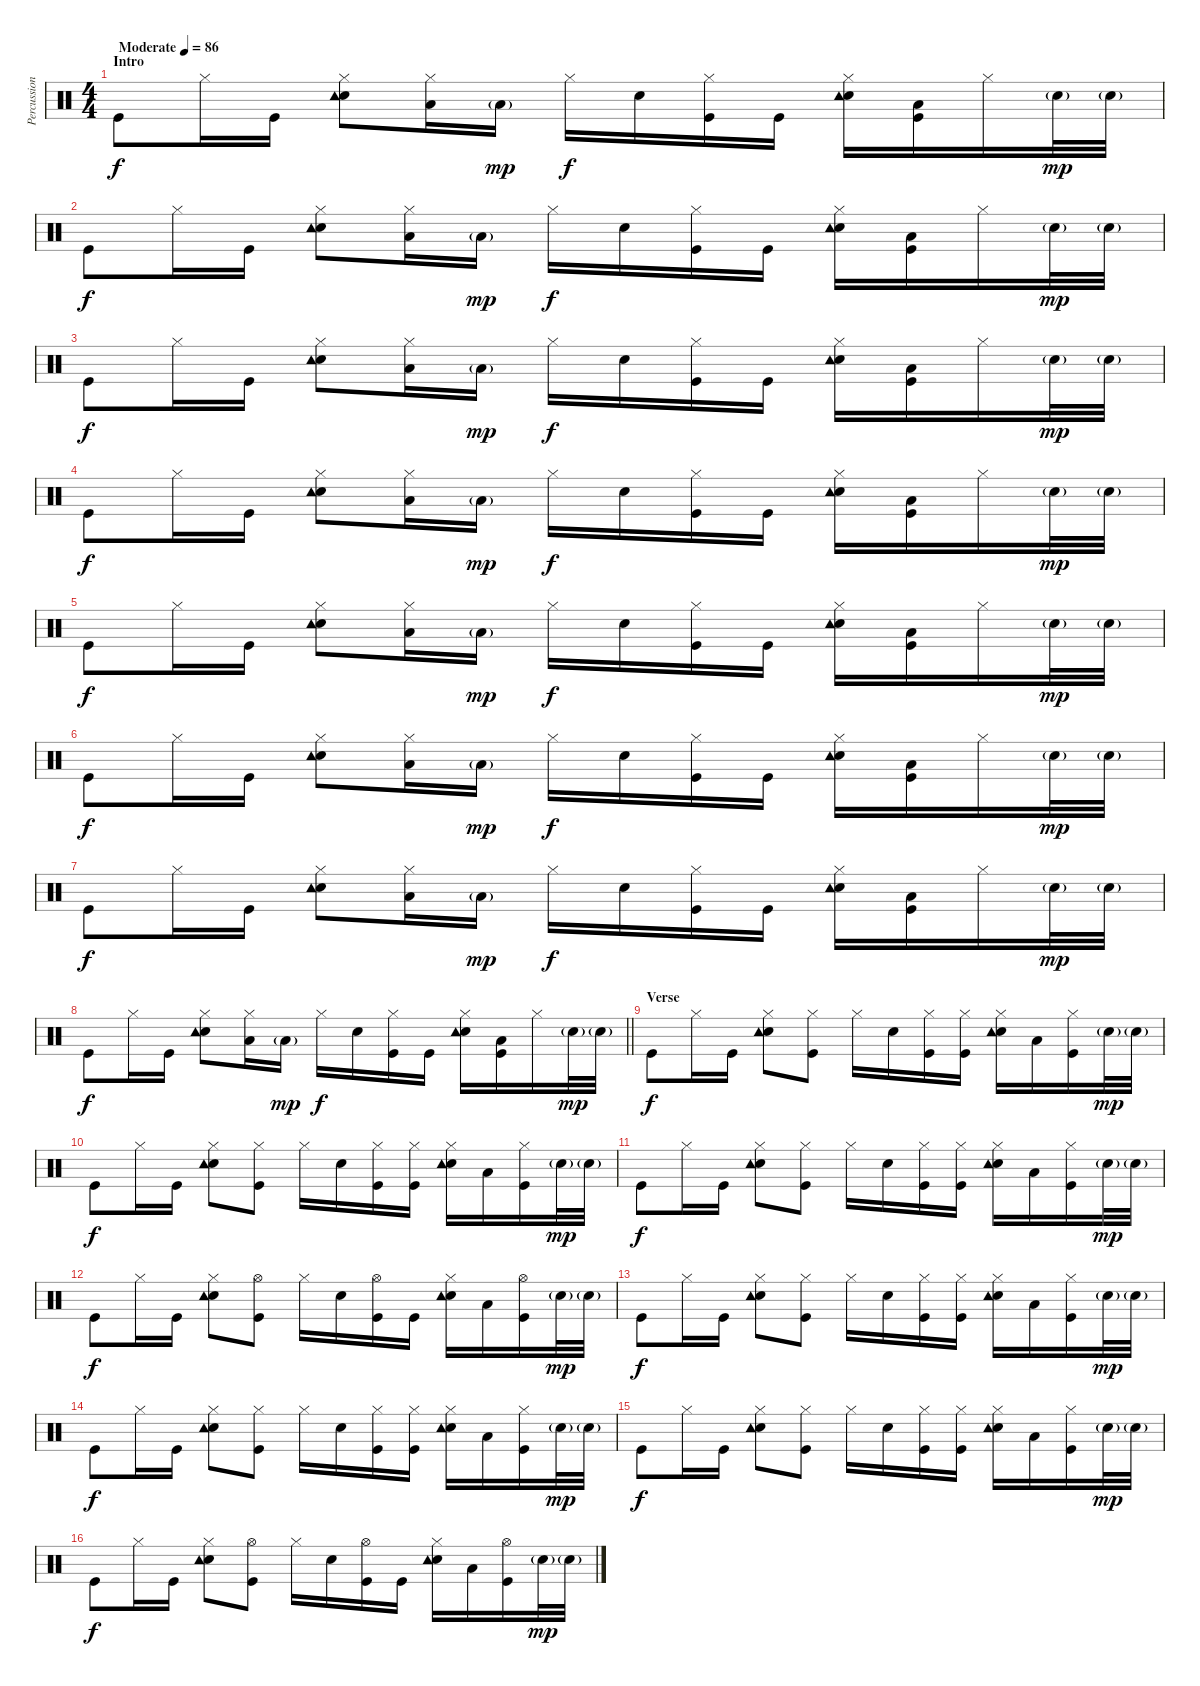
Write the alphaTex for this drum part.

\track ("Percussion" "Percussion") {instrument percussion}
\staff {score}
\articulation defaults
\ts (4 4)
\section ("" "Intro")
\tempo (86 "Moderate")
\clef neutral
\ks c "Kick (hit)".8{dy f} "Hi-Hat (closed)".16 "Kick (hit)".16
("Snare (hit) 2" "Hi-Hat (closed)" "Tambourine (hit)").8 ("Hi-Hat (closed)" "Low Tom (hit)").16 "Low Tom (hit)"{g}.16{dy mp} "Hi-Hat (closed)".16{dy f} "Snare (hit) 2".16 ("Kick (hit)" "Hi-Hat (closed)").16 "Kick (hit)".16 ("Snare (hit) 2" "Hi-Hat (closed)" "Tambourine (hit)").16 ("Kick (hit)" "Low Tom (hit)").16 "Hi-Hat (closed)".16 "Snare (hit) 2"{g}.32{dy mp} "Snare (hit) 2"{g}.32 |
"Kick (hit)".8{dy f} "Hi-Hat (closed)".16 "Kick (hit)".16 ("Snare (hit) 2" "Hi-Hat (closed)" "Tambourine (hit)").8 ("Hi-Hat (closed)" "Low Tom (hit)").16 "Low Tom (hit)"{g}.16{dy mp} "Hi-Hat (closed)".16{dy f} "Snare (hit) 2".16 ("Kick (hit)" "Hi-Hat (closed)").16 "Kick (hit)".16 ("Snare (hit) 2" "Hi-Hat (closed)" "Tambourine (hit)").16 ("Kick (hit)" "Low Tom (hit)").16 "Hi-Hat (closed)".16 "Snare (hit) 2"{g}.32{dy mp} "Snare (hit) 2"{g}.32 |
"Kick (hit)".8{dy f} "Hi-Hat (closed)".16 "Kick (hit)".16 ("Snare (hit) 2" "Hi-Hat (closed)" "Tambourine (hit)").8 ("Hi-Hat (closed)" "Low Tom (hit)").16 "Low Tom (hit)"{g}.16{dy mp} "Hi-Hat (closed)".16{dy f} "Snare (hit) 2".16 ("Kick (hit)" "Hi-Hat (closed)").16 "Kick (hit)".16 ("Snare (hit) 2" "Hi-Hat (closed)" "Tambourine (hit)").16 ("Kick (hit)" "Low Tom (hit)").16 "Hi-Hat (closed)".16 "Snare (hit) 2"{g}.32{dy mp} "Snare (hit) 2"{g}.32 |
"Kick (hit)".8{dy f} "Hi-Hat (closed)".16 "Kick (hit)".16 ("Snare (hit) 2" "Hi-Hat (closed)" "Tambourine (hit)").8 ("Hi-Hat (closed)" "Low Tom (hit)").16 "Low Tom (hit)"{g}.16{dy mp} "Hi-Hat (closed)".16{dy f} "Snare (hit) 2".16 ("Kick (hit)" "Hi-Hat (closed)").16 "Kick (hit)".16 ("Snare (hit) 2" "Hi-Hat (closed)" "Tambourine (hit)").16 ("Kick (hit)" "Low Tom (hit)").16 "Hi-Hat (closed)".16 "Snare (hit) 2"{g}.32{dy mp} "Snare (hit) 2"{g}.32 |
"Kick (hit)".8{dy f} "Hi-Hat (closed)".16 "Kick (hit)".16 ("Snare (hit) 2" "Hi-Hat (closed)" "Tambourine (hit)").8 ("Hi-Hat (closed)" "Low Tom (hit)").16 "Low Tom (hit)"{g}.16{dy mp} "Hi-Hat (closed)".16{dy f} "Snare (hit) 2".16 ("Kick (hit)" "Hi-Hat (closed)").16 "Kick (hit)".16 ("Snare (hit) 2" "Hi-Hat (closed)" "Tambourine (hit)").16 ("Kick (hit)" "Low Tom (hit)").16 "Hi-Hat (closed)".16 "Snare (hit) 2"{g}.32{dy mp} "Snare (hit) 2"{g}.32 |
"Kick (hit)".8{dy f} "Hi-Hat (closed)".16 "Kick (hit)".16 ("Snare (hit) 2" "Hi-Hat (closed)" "Tambourine (hit)").8 ("Hi-Hat (closed)" "Low Tom (hit)").16 "Low Tom (hit)"{g}.16{dy mp} "Hi-Hat (closed)".16{dy f} "Snare (hit) 2".16 ("Kick (hit)" "Hi-Hat (closed)").16 "Kick (hit)".16 ("Snare (hit) 2" "Hi-Hat (closed)" "Tambourine (hit)").16 ("Kick (hit)" "Low Tom (hit)").16 "Hi-Hat (closed)".16 "Snare (hit) 2"{g}.32{dy mp} "Snare (hit) 2"{g}.32 |
"Kick (hit)".8{dy f} "Hi-Hat (closed)".16 "Kick (hit)".16 ("Snare (hit) 2" "Hi-Hat (closed)" "Tambourine (hit)").8 ("Hi-Hat (closed)" "Low Tom (hit)").16 "Low Tom (hit)"{g}.16{dy mp} "Hi-Hat (closed)".16{dy f} "Snare (hit) 2".16 ("Kick (hit)" "Hi-Hat (closed)").16 "Kick (hit)".16 ("Snare (hit) 2" "Hi-Hat (closed)" "Tambourine (hit)").16 ("Kick (hit)" "Low Tom (hit)").16 "Hi-Hat (closed)".16 "Snare (hit) 2"{g}.32{dy mp} "Snare (hit) 2"{g}.32 |
\barLineRight lightlight "Kick (hit)".8{dy f} "Hi-Hat (closed)".16 "Kick (hit)".16
("Snare (hit) 2" "Hi-Hat (closed)" "Tambourine (hit)").8 ("Hi-Hat (closed)" "Low Tom (hit)").16 "Low Tom (hit)"{g}.16{dy mp} "Hi-Hat (closed)".16{dy f} "Snare (hit) 2".16 ("Kick (hit)" "Hi-Hat (closed)").16 "Kick (hit)".16 ("Snare (hit) 2" "Hi-Hat (closed)" "Tambourine (hit)").16 ("Kick (hit)" "Low Tom (hit)").16 "Hi-Hat (closed)".16 "Snare (hit) 2"{g}.32{dy mp} "Snare (hit) 2"{g}.32 |
\section ("" "Verse")
"Kick (hit)".8{dy f} "Hi-Hat (closed)".16 "Kick (hit)".16 ("Snare (hit) 2" "Hi-Hat (closed)" "Tambourine (hit)").8 ("Hi-Hat (closed)" "Kick (hit)").8 "Hi-Hat (closed)".16 "Snare (hit) 2".16 ("Kick (hit)" "Hi-Hat (closed)").16 ("Kick (hit)" "Hi-Hat (closed)").16 ("Snare (hit) 2" "Hi-Hat (closed)" "Tambourine (hit)").16 "Low Tom (hit)".16 ("Hi-Hat (closed)" "Kick (hit)").16 "Snare (hit) 2"{g}.32{dy mp} "Snare (hit) 2"{g}.32 |
"Kick (hit)".8{dy f} "Hi-Hat (closed)".16 "Kick (hit)".16 ("Snare (hit) 2" "Hi-Hat (closed)" "Tambourine (hit)").8 ("Hi-Hat (closed)" "Kick (hit)").8 "Hi-Hat (closed)".16 "Snare (hit) 2".16 ("Kick (hit)" "Hi-Hat (closed)").16 ("Kick (hit)" "Hi-Hat (closed)").16 ("Snare (hit) 2" "Hi-Hat (closed)" "Tambourine (hit)").16 "Low Tom (hit)".16 ("Hi-Hat (closed)" "Kick (hit)").16 "Snare (hit) 2"{g}.32{dy mp} "Snare (hit) 2"{g}.32 |
"Kick (hit)".8{dy f} "Hi-Hat (closed)".16 "Kick (hit)".16 ("Snare (hit) 2" "Hi-Hat (closed)" "Tambourine (hit)").8 ("Hi-Hat (closed)" "Kick (hit)").8 "Hi-Hat (closed)".16 "Snare (hit) 2".16 ("Kick (hit)" "Hi-Hat (closed)").16 ("Kick (hit)" "Hi-Hat (closed)").16 ("Snare (hit) 2" "Hi-Hat (closed)" "Tambourine (hit)").16 "Low Tom (hit)".16 ("Hi-Hat (closed)" "Kick (hit)").16 "Snare (hit) 2"{g}.32{dy mp} "Snare (hit) 2"{g}.32 |
"Kick (hit)".8{dy f} "Hi-Hat (closed)".16 "Kick (hit)".16 ("Snare (hit) 2" "Hi-Hat (closed)" "Tambourine (hit)").8 ("Hi-Hat (open)" "Kick (hit)").8 "Hi-Hat (closed)".16 "Snare (hit) 2".16 ("Kick (hit)" "Hi-Hat (open)").16 "Kick (hit)".16 ("Snare (hit) 2" "Tambourine (hit)" "Hi-Hat (closed)").16 "Low Tom (hit)".16 ("Hi-Hat (open)" "Kick (hit)").16 "Snare (hit) 2"{g}.32{dy mp} "Snare (hit) 2"{g}.32 |
"Kick (hit)".8{dy f} "Hi-Hat (closed)".16 "Kick (hit)".16 ("Snare (hit) 2" "Hi-Hat (closed)" "Tambourine (hit)").8 ("Hi-Hat (closed)" "Kick (hit)").8 "Hi-Hat (closed)".16 "Snare (hit) 2".16 ("Kick (hit)" "Hi-Hat (closed)").16 ("Kick (hit)" "Hi-Hat (closed)").16 ("Snare (hit) 2" "Hi-Hat (closed)" "Tambourine (hit)").16 "Low Tom (hit)".16 ("Hi-Hat (closed)" "Kick (hit)").16 "Snare (hit) 2"{g}.32{dy mp} "Snare (hit) 2"{g}.32 |
"Kick (hit)".8{dy f} "Hi-Hat (closed)".16 "Kick (hit)".16 ("Snare (hit) 2" "Hi-Hat (closed)" "Tambourine (hit)").8 ("Hi-Hat (closed)" "Kick (hit)").8 "Hi-Hat (closed)".16 "Snare (hit) 2".16 ("Kick (hit)" "Hi-Hat (closed)").16 ("Kick (hit)" "Hi-Hat (closed)").16 ("Snare (hit) 2" "Hi-Hat (closed)" "Tambourine (hit)").16 "Low Tom (hit)".16 ("Hi-Hat (closed)" "Kick (hit)").16 "Snare (hit) 2"{g}.32{dy mp} "Snare (hit) 2"{g}.32 |
"Kick (hit)".8{dy f} "Hi-Hat (closed)".16 "Kick (hit)".16 ("Snare (hit) 2" "Hi-Hat (closed)" "Tambourine (hit)").8 ("Hi-Hat (closed)" "Kick (hit)").8 "Hi-Hat (closed)".16 "Snare (hit) 2".16 ("Kick (hit)" "Hi-Hat (closed)").16 ("Kick (hit)" "Hi-Hat (closed)").16 ("Snare (hit) 2" "Hi-Hat (closed)" "Tambourine (hit)").16 "Low Tom (hit)".16 ("Hi-Hat (closed)" "Kick (hit)").16 "Snare (hit) 2"{g}.32{dy mp} "Snare (hit) 2"{g}.32 |
"Kick (hit)".8{dy f} "Hi-Hat (closed)".16 "Kick (hit)".16 ("Snare (hit) 2" "Hi-Hat (closed)" "Tambourine (hit)").8 ("Hi-Hat (open)" "Kick (hit)").8 "Hi-Hat (closed)".16 "Snare (hit) 2".16 ("Kick (hit)" "Hi-Hat (open)").16 "Kick (hit)".16 ("Snare (hit) 2" "Tambourine (hit)" "Hi-Hat (closed)").16 "Low Tom (hit)".16 ("Hi-Hat (open)" "Kick (hit)").16 "Snare (hit) 2"{g}.32{dy mp} "Snare (hit) 2"{g}.32
